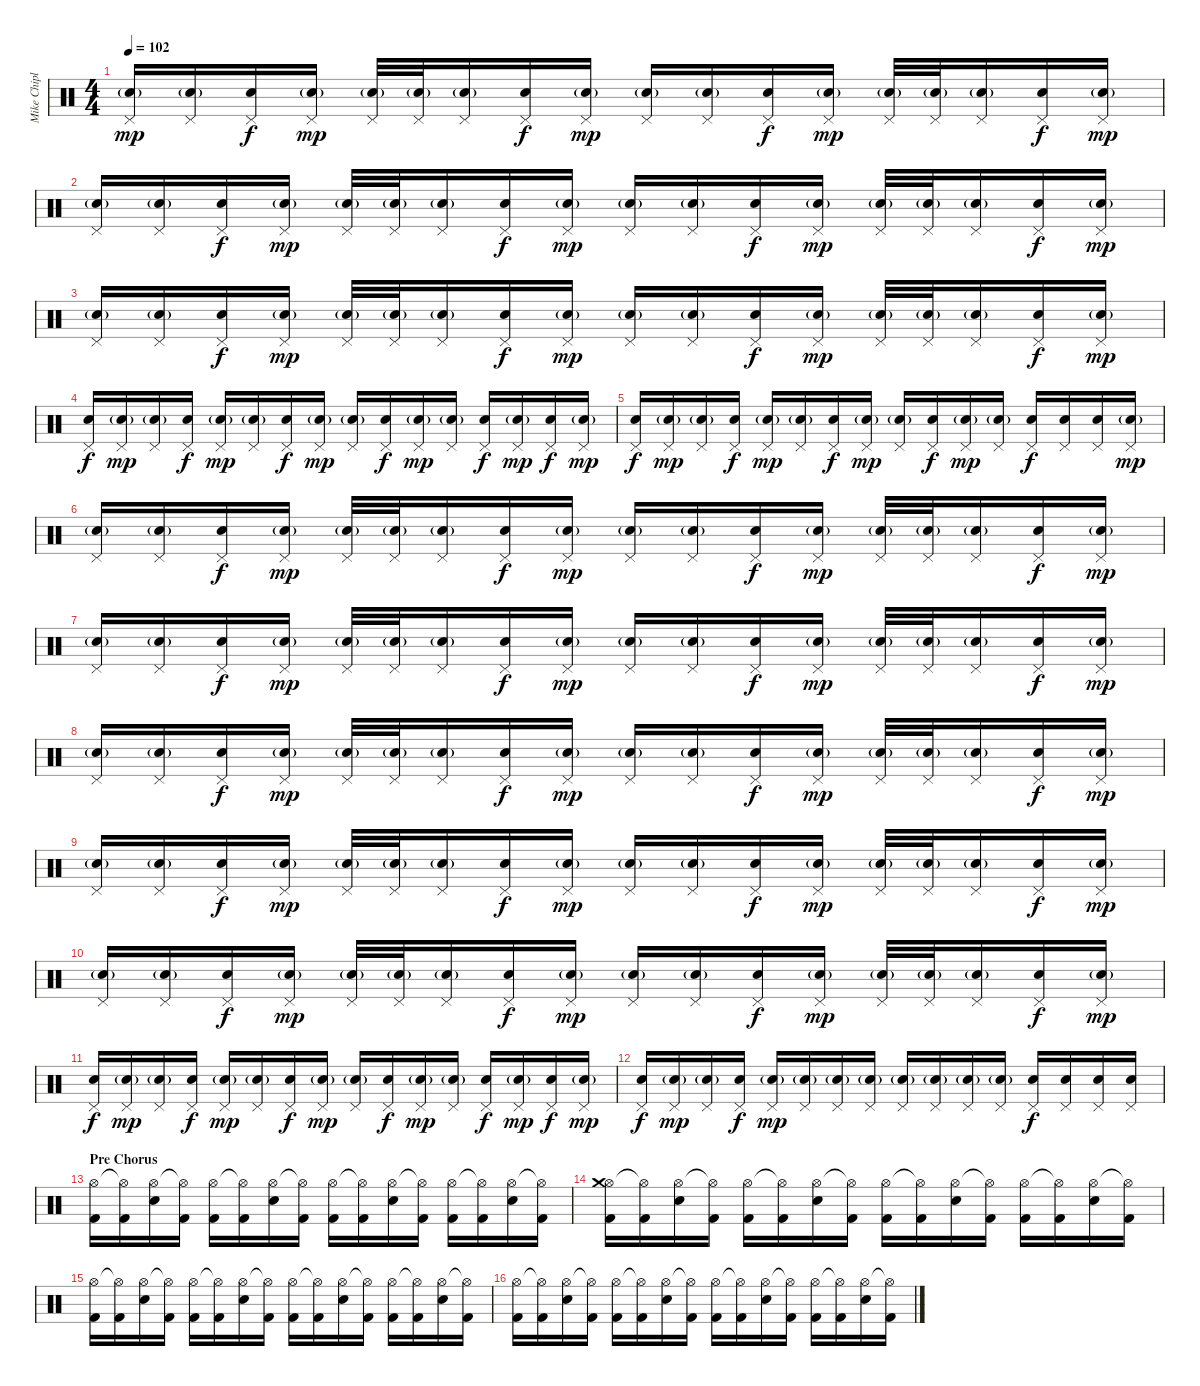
\track ("Mike Chiplin" "Mike Chipl") {instrument percussion}
\staff {score}
\articulation defaults
\ts (4 4)
\tempo 102
\clef neutral
\ks c
("Pedal Hi-Hat (hit)" "Electric Snare (hit)"{g}).16{dy mp} ("Pedal Hi-Hat (hit)" "Electric Snare (hit)"{g}).16 ("Pedal Hi-Hat (hit)" "Electric Snare (hit)").16{dy f} ("Pedal Hi-Hat (hit)" "Electric Snare (hit)"{g}).16{dy mp} ("Pedal Hi-Hat (hit)" "Electric Snare (hit)"{g}).32 ("Pedal Hi-Hat (hit)" "Electric Snare (hit)"{g}).32 ("Pedal Hi-Hat (hit)" "Electric Snare (hit)"{g}).16 ("Pedal Hi-Hat (hit)" "Electric Snare (hit)").16{dy f} ("Pedal Hi-Hat (hit)" "Electric Snare (hit)"{g}).16{dy mp} ("Pedal Hi-Hat (hit)" "Electric Snare (hit)"{g}).16 ("Pedal Hi-Hat (hit)" "Electric Snare (hit)"{g}).16 ("Pedal Hi-Hat (hit)" "Electric Snare (hit)").16{dy f} ("Pedal Hi-Hat (hit)" "Electric Snare (hit)"{g}).16{dy mp} ("Pedal Hi-Hat (hit)" "Electric Snare (hit)"{g}).32 ("Pedal Hi-Hat (hit)" "Electric Snare (hit)"{g}).32 ("Pedal Hi-Hat (hit)" "Electric Snare (hit)"{g}).16 ("Pedal Hi-Hat (hit)" "Electric Snare (hit)").16{dy f} ("Pedal Hi-Hat (hit)" "Electric Snare (hit)"{g}).16{dy mp} |
("Pedal Hi-Hat (hit)" "Electric Snare (hit)"{g}).16 ("Pedal Hi-Hat (hit)" "Electric Snare (hit)"{g}).16 ("Pedal Hi-Hat (hit)" "Electric Snare (hit)").16{dy f} ("Pedal Hi-Hat (hit)" "Electric Snare (hit)"{g}).16{dy mp} ("Pedal Hi-Hat (hit)" "Electric Snare (hit)"{g}).32 ("Pedal Hi-Hat (hit)" "Electric Snare (hit)"{g}).32 ("Pedal Hi-Hat (hit)" "Electric Snare (hit)"{g}).16 ("Pedal Hi-Hat (hit)" "Electric Snare (hit)").16{dy f} ("Pedal Hi-Hat (hit)" "Electric Snare (hit)"{g}).16{dy mp} ("Pedal Hi-Hat (hit)" "Electric Snare (hit)"{g}).16 ("Pedal Hi-Hat (hit)" "Electric Snare (hit)"{g}).16 ("Pedal Hi-Hat (hit)" "Electric Snare (hit)").16{dy f} ("Pedal Hi-Hat (hit)" "Electric Snare (hit)"{g}).16{dy mp} ("Pedal Hi-Hat (hit)" "Electric Snare (hit)"{g}).32 ("Pedal Hi-Hat (hit)" "Electric Snare (hit)"{g}).32 ("Pedal Hi-Hat (hit)" "Electric Snare (hit)"{g}).16 ("Pedal Hi-Hat (hit)" "Electric Snare (hit)").16{dy f} ("Pedal Hi-Hat (hit)" "Electric Snare (hit)"{g}).16{dy mp} |
("Pedal Hi-Hat (hit)" "Electric Snare (hit)"{g}).16 ("Pedal Hi-Hat (hit)" "Electric Snare (hit)"{g}).16 ("Pedal Hi-Hat (hit)" "Electric Snare (hit)").16{dy f} ("Pedal Hi-Hat (hit)" "Electric Snare (hit)"{g}).16{dy mp} ("Pedal Hi-Hat (hit)" "Electric Snare (hit)"{g}).32 ("Pedal Hi-Hat (hit)" "Electric Snare (hit)"{g}).32 ("Pedal Hi-Hat (hit)" "Electric Snare (hit)"{g}).16 ("Pedal Hi-Hat (hit)" "Electric Snare (hit)").16{dy f} ("Pedal Hi-Hat (hit)" "Electric Snare (hit)"{g}).16{dy mp} ("Pedal Hi-Hat (hit)" "Electric Snare (hit)"{g}).16 ("Pedal Hi-Hat (hit)" "Electric Snare (hit)"{g}).16 ("Pedal Hi-Hat (hit)" "Electric Snare (hit)").16{dy f} ("Pedal Hi-Hat (hit)" "Electric Snare (hit)"{g}).16{dy mp} ("Pedal Hi-Hat (hit)" "Electric Snare (hit)"{g}).32 ("Pedal Hi-Hat (hit)" "Electric Snare (hit)"{g}).32 ("Pedal Hi-Hat (hit)" "Electric Snare (hit)"{g}).16 ("Pedal Hi-Hat (hit)" "Electric Snare (hit)").16{dy f} ("Pedal Hi-Hat (hit)" "Electric Snare (hit)"{g}).16{dy mp} |
("Pedal Hi-Hat (hit)" "Electric Snare (hit)").16{dy f} ("Pedal Hi-Hat (hit)" "Electric Snare (hit)"{g}).16{dy mp} ("Pedal Hi-Hat (hit)" "Electric Snare (hit)"{g}).16 ("Pedal Hi-Hat (hit)" "Electric Snare (hit)").16{dy f} ("Pedal Hi-Hat (hit)" "Electric Snare (hit)"{g}).16{dy mp} ("Pedal Hi-Hat (hit)" "Electric Snare (hit)"{g}).16 ("Pedal Hi-Hat (hit)" "Electric Snare (hit)").16{dy f} ("Pedal Hi-Hat (hit)" "Electric Snare (hit)"{g}).16{dy mp} ("Pedal Hi-Hat (hit)" "Electric Snare (hit)"{g}).16 ("Pedal Hi-Hat (hit)" "Electric Snare (hit)").16{dy f} ("Pedal Hi-Hat (hit)" "Electric Snare (hit)"{g}).16{dy mp} ("Pedal Hi-Hat (hit)" "Electric Snare (hit)"{g}).16 ("Pedal Hi-Hat (hit)" "Electric Snare (hit)").16{dy f} ("Pedal Hi-Hat (hit)" "Electric Snare (hit)"{g}).16{dy mp} ("Pedal Hi-Hat (hit)" "Electric Snare (hit)").16{dy f} ("Pedal Hi-Hat (hit)" "Electric Snare (hit)"{g}).16{dy mp} |
("Pedal Hi-Hat (hit)" "Electric Snare (hit)").16{dy f} ("Pedal Hi-Hat (hit)" "Electric Snare (hit)"{g}).16{dy mp} ("Pedal Hi-Hat (hit)" "Electric Snare (hit)"{g}).16 ("Pedal Hi-Hat (hit)" "Electric Snare (hit)").16{dy f} ("Pedal Hi-Hat (hit)" "Electric Snare (hit)"{g}).16{dy mp} ("Pedal Hi-Hat (hit)" "Electric Snare (hit)"{g}).16 ("Pedal Hi-Hat (hit)" "Electric Snare (hit)").16{dy f} ("Pedal Hi-Hat (hit)" "Electric Snare (hit)"{g}).16{dy mp} ("Pedal Hi-Hat (hit)" "Electric Snare (hit)"{g}).16 ("Pedal Hi-Hat (hit)" "Electric Snare (hit)").16{dy f} ("Pedal Hi-Hat (hit)" "Electric Snare (hit)"{g}).16{dy mp} ("Pedal Hi-Hat (hit)" "Electric Snare (hit)"{g}).16 ("Pedal Hi-Hat (hit)" "Electric Snare (hit)").16{dy f} ("Pedal Hi-Hat (hit)" "Electric Snare (hit)").16 ("Pedal Hi-Hat (hit)" "Electric Snare (hit)").16 ("Pedal Hi-Hat (hit)" "Electric Snare (hit)"{g}).16{dy mp} |
("Pedal Hi-Hat (hit)" "Electric Snare (hit)"{g}).16 ("Pedal Hi-Hat (hit)" "Electric Snare (hit)"{g}).16 ("Pedal Hi-Hat (hit)" "Electric Snare (hit)").16{dy f} ("Pedal Hi-Hat (hit)" "Electric Snare (hit)"{g}).16{dy mp} ("Pedal Hi-Hat (hit)" "Electric Snare (hit)"{g}).32 ("Pedal Hi-Hat (hit)" "Electric Snare (hit)"{g}).32 ("Pedal Hi-Hat (hit)" "Electric Snare (hit)"{g}).16 ("Pedal Hi-Hat (hit)" "Electric Snare (hit)").16{dy f} ("Pedal Hi-Hat (hit)" "Electric Snare (hit)"{g}).16{dy mp} ("Pedal Hi-Hat (hit)" "Electric Snare (hit)"{g}).16 ("Pedal Hi-Hat (hit)" "Electric Snare (hit)"{g}).16 ("Pedal Hi-Hat (hit)" "Electric Snare (hit)").16{dy f} ("Pedal Hi-Hat (hit)" "Electric Snare (hit)"{g}).16{dy mp} ("Pedal Hi-Hat (hit)" "Electric Snare (hit)"{g}).32 ("Pedal Hi-Hat (hit)" "Electric Snare (hit)"{g}).32 ("Pedal Hi-Hat (hit)" "Electric Snare (hit)"{g}).16 ("Pedal Hi-Hat (hit)" "Electric Snare (hit)").16{dy f} ("Pedal Hi-Hat (hit)" "Electric Snare (hit)"{g}).16{dy mp} |
("Pedal Hi-Hat (hit)" "Electric Snare (hit)"{g}).16 ("Pedal Hi-Hat (hit)" "Electric Snare (hit)"{g}).16 ("Pedal Hi-Hat (hit)" "Electric Snare (hit)").16{dy f} ("Pedal Hi-Hat (hit)" "Electric Snare (hit)"{g}).16{dy mp} ("Pedal Hi-Hat (hit)" "Electric Snare (hit)"{g}).32 ("Pedal Hi-Hat (hit)" "Electric Snare (hit)"{g}).32 ("Pedal Hi-Hat (hit)" "Electric Snare (hit)"{g}).16 ("Pedal Hi-Hat (hit)" "Electric Snare (hit)").16{dy f} ("Pedal Hi-Hat (hit)" "Electric Snare (hit)"{g}).16{dy mp} ("Pedal Hi-Hat (hit)" "Electric Snare (hit)"{g}).16 ("Pedal Hi-Hat (hit)" "Electric Snare (hit)"{g}).16 ("Pedal Hi-Hat (hit)" "Electric Snare (hit)").16{dy f} ("Pedal Hi-Hat (hit)" "Electric Snare (hit)"{g}).16{dy mp} ("Pedal Hi-Hat (hit)" "Electric Snare (hit)"{g}).32 ("Pedal Hi-Hat (hit)" "Electric Snare (hit)"{g}).32 ("Pedal Hi-Hat (hit)" "Electric Snare (hit)"{g}).16 ("Pedal Hi-Hat (hit)" "Electric Snare (hit)").16{dy f} ("Pedal Hi-Hat (hit)" "Electric Snare (hit)"{g}).16{dy mp} |
("Pedal Hi-Hat (hit)" "Electric Snare (hit)"{g}).16 ("Pedal Hi-Hat (hit)" "Electric Snare (hit)"{g}).16 ("Pedal Hi-Hat (hit)" "Electric Snare (hit)").16{dy f} ("Pedal Hi-Hat (hit)" "Electric Snare (hit)"{g}).16{dy mp} ("Pedal Hi-Hat (hit)" "Electric Snare (hit)"{g}).32 ("Pedal Hi-Hat (hit)" "Electric Snare (hit)"{g}).32 ("Pedal Hi-Hat (hit)" "Electric Snare (hit)"{g}).16 ("Pedal Hi-Hat (hit)" "Electric Snare (hit)").16{dy f} ("Pedal Hi-Hat (hit)" "Electric Snare (hit)"{g}).16{dy mp} ("Pedal Hi-Hat (hit)" "Electric Snare (hit)"{g}).16 ("Pedal Hi-Hat (hit)" "Electric Snare (hit)"{g}).16 ("Pedal Hi-Hat (hit)" "Electric Snare (hit)").16{dy f} ("Pedal Hi-Hat (hit)" "Electric Snare (hit)"{g}).16{dy mp} ("Pedal Hi-Hat (hit)" "Electric Snare (hit)"{g}).32 ("Pedal Hi-Hat (hit)" "Electric Snare (hit)"{g}).32 ("Pedal Hi-Hat (hit)" "Electric Snare (hit)"{g}).16 ("Pedal Hi-Hat (hit)" "Electric Snare (hit)").16{dy f} ("Pedal Hi-Hat (hit)" "Electric Snare (hit)"{g}).16{dy mp} |
("Pedal Hi-Hat (hit)" "Electric Snare (hit)"{g}).16 ("Pedal Hi-Hat (hit)" "Electric Snare (hit)"{g}).16 ("Pedal Hi-Hat (hit)" "Electric Snare (hit)").16{dy f} ("Pedal Hi-Hat (hit)" "Electric Snare (hit)"{g}).16{dy mp} ("Pedal Hi-Hat (hit)" "Electric Snare (hit)"{g}).32 ("Pedal Hi-Hat (hit)" "Electric Snare (hit)"{g}).32 ("Pedal Hi-Hat (hit)" "Electric Snare (hit)"{g}).16 ("Pedal Hi-Hat (hit)" "Electric Snare (hit)").16{dy f} ("Pedal Hi-Hat (hit)" "Electric Snare (hit)"{g}).16{dy mp} ("Pedal Hi-Hat (hit)" "Electric Snare (hit)"{g}).16 ("Pedal Hi-Hat (hit)" "Electric Snare (hit)"{g}).16 ("Pedal Hi-Hat (hit)" "Electric Snare (hit)").16{dy f} ("Pedal Hi-Hat (hit)" "Electric Snare (hit)"{g}).16{dy mp} ("Pedal Hi-Hat (hit)" "Electric Snare (hit)"{g}).32 ("Pedal Hi-Hat (hit)" "Electric Snare (hit)"{g}).32 ("Pedal Hi-Hat (hit)" "Electric Snare (hit)"{g}).16 ("Pedal Hi-Hat (hit)" "Electric Snare (hit)").16{dy f} ("Pedal Hi-Hat (hit)" "Electric Snare (hit)"{g}).16{dy mp} |
("Pedal Hi-Hat (hit)" "Electric Snare (hit)"{g}).16 ("Pedal Hi-Hat (hit)" "Electric Snare (hit)"{g}).16 ("Pedal Hi-Hat (hit)" "Electric Snare (hit)").16{dy f} ("Pedal Hi-Hat (hit)" "Electric Snare (hit)"{g}).16{dy mp} ("Pedal Hi-Hat (hit)" "Electric Snare (hit)"{g}).32 ("Pedal Hi-Hat (hit)" "Electric Snare (hit)"{g}).32 ("Pedal Hi-Hat (hit)" "Electric Snare (hit)"{g}).16 ("Pedal Hi-Hat (hit)" "Electric Snare (hit)").16{dy f} ("Pedal Hi-Hat (hit)" "Electric Snare (hit)"{g}).16{dy mp} ("Pedal Hi-Hat (hit)" "Electric Snare (hit)"{g}).16 ("Pedal Hi-Hat (hit)" "Electric Snare (hit)"{g}).16 ("Pedal Hi-Hat (hit)" "Electric Snare (hit)").16{dy f} ("Pedal Hi-Hat (hit)" "Electric Snare (hit)"{g}).16{dy mp} ("Pedal Hi-Hat (hit)" "Electric Snare (hit)"{g}).32 ("Pedal Hi-Hat (hit)" "Electric Snare (hit)"{g}).32 ("Pedal Hi-Hat (hit)" "Electric Snare (hit)"{g}).16 ("Pedal Hi-Hat (hit)" "Electric Snare (hit)").16{dy f} ("Pedal Hi-Hat (hit)" "Electric Snare (hit)"{g}).16{dy mp} |
("Pedal Hi-Hat (hit)" "Electric Snare (hit)").16{dy f} ("Pedal Hi-Hat (hit)" "Electric Snare (hit)"{g}).16{dy mp} ("Pedal Hi-Hat (hit)" "Electric Snare (hit)"{g}).16 ("Pedal Hi-Hat (hit)" "Electric Snare (hit)").16{dy f} ("Pedal Hi-Hat (hit)" "Electric Snare (hit)"{g}).16{dy mp} ("Pedal Hi-Hat (hit)" "Electric Snare (hit)"{g}).16 ("Pedal Hi-Hat (hit)" "Electric Snare (hit)").16{dy f} ("Pedal Hi-Hat (hit)" "Electric Snare (hit)"{g}).16{dy mp} ("Pedal Hi-Hat (hit)" "Electric Snare (hit)"{g}).16 ("Pedal Hi-Hat (hit)" "Electric Snare (hit)").16{dy f} ("Pedal Hi-Hat (hit)" "Electric Snare (hit)"{g}).16{dy mp} ("Pedal Hi-Hat (hit)" "Electric Snare (hit)"{g}).16 ("Pedal Hi-Hat (hit)" "Electric Snare (hit)").16{dy f} ("Pedal Hi-Hat (hit)" "Electric Snare (hit)"{g}).16{dy mp} ("Pedal Hi-Hat (hit)" "Electric Snare (hit)").16{dy f} ("Pedal Hi-Hat (hit)" "Electric Snare (hit)"{g}).16{dy mp} |
("Pedal Hi-Hat (hit)" "Electric Snare (hit)").16{dy f} ("Pedal Hi-Hat (hit)" "Electric Snare (hit)"{g}).16{dy mp} ("Pedal Hi-Hat (hit)" "Electric Snare (hit)"{g}).16 ("Pedal Hi-Hat (hit)" "Electric Snare (hit)").16{dy f} ("Pedal Hi-Hat (hit)" "Electric Snare (hit)"{g}).16{dy mp} ("Pedal Hi-Hat (hit)" "Electric Snare (hit)"{g}).16 ("Pedal Hi-Hat (hit)" "Electric Snare (hit)"{g}).16 ("Pedal Hi-Hat (hit)" "Electric Snare (hit)"{g}).16 ("Pedal Hi-Hat (hit)" "Electric Snare (hit)"{g}).16 ("Pedal Hi-Hat (hit)" "Electric Snare (hit)"{g}).16 ("Pedal Hi-Hat (hit)" "Electric Snare (hit)"{g}).16 ("Pedal Hi-Hat (hit)" "Electric Snare (hit)"{g}).16 ("Pedal Hi-Hat (hit)" "Electric Snare (hit)").16{dy f} ("Pedal Hi-Hat (hit)" "Electric Snare (hit)").16 ("Pedal Hi-Hat (hit)" "Electric Snare (hit)").16 ("Pedal Hi-Hat (hit)" "Electric Snare (hit)").16 |
\section ("" "Pre Chorus")
("Hi-Hat (open)" "Kick (hit) 2").16 ("Hi-Hat (open)"{t} "Kick (hit) 2").16 ("Hi-Hat (open)" "Electric Snare (hit)").16 ("Hi-Hat (open)"{t} "Kick (hit) 2").16 ("Hi-Hat (open)" "Kick (hit) 2").16 ("Hi-Hat (open)"{t} "Kick (hit) 2").16 ("Hi-Hat (open)" "Electric Snare (hit)").16 ("Hi-Hat (open)"{t} "Kick (hit) 2").16 ("Hi-Hat (open)" "Kick (hit) 2").16 ("Hi-Hat (open)"{t} "Kick (hit) 2").16 ("Hi-Hat (open)" "Electric Snare (hit)").16 ("Hi-Hat (open)"{t} "Kick (hit) 2").16 ("Hi-Hat (open)" "Kick (hit) 2").16 ("Hi-Hat (open)"{t} "Kick (hit) 2").16 ("Hi-Hat (open)" "Electric Snare (hit)").16 ("Hi-Hat (open)"{t} "Kick (hit) 2").16 |
("Hi-Hat (open)" "Crash medium (hit)" "Kick (hit) 2").16 ("Hi-Hat (open)"{t} "Kick (hit) 2").16 ("Hi-Hat (open)" "Electric Snare (hit)").16 ("Hi-Hat (open)"{t} "Kick (hit) 2").16 ("Hi-Hat (open)" "Kick (hit) 2").16 ("Hi-Hat (open)"{t} "Kick (hit) 2").16 ("Hi-Hat (open)" "Electric Snare (hit)").16 ("Hi-Hat (open)"{t} "Kick (hit) 2").16 ("Hi-Hat (open)" "Kick (hit) 2").16 ("Hi-Hat (open)"{t} "Kick (hit) 2").16 ("Hi-Hat (open)" "Electric Snare (hit)").16 ("Hi-Hat (open)"{t} "Kick (hit) 2").16 ("Hi-Hat (open)" "Kick (hit) 2").16 ("Hi-Hat (open)"{t} "Kick (hit) 2").16 ("Hi-Hat (open)" "Electric Snare (hit)").16 ("Hi-Hat (open)"{t} "Kick (hit) 2").16 |
("Hi-Hat (open)" "Kick (hit) 2").16 ("Hi-Hat (open)"{t} "Kick (hit) 2").16 ("Hi-Hat (open)" "Electric Snare (hit)").16 ("Hi-Hat (open)"{t} "Kick (hit) 2").16 ("Hi-Hat (open)" "Kick (hit) 2").16 ("Hi-Hat (open)"{t} "Kick (hit) 2").16 ("Hi-Hat (open)" "Electric Snare (hit)").16 ("Hi-Hat (open)"{t} "Kick (hit) 2").16 ("Hi-Hat (open)" "Kick (hit) 2").16 ("Hi-Hat (open)"{t} "Kick (hit) 2").16 ("Hi-Hat (open)" "Electric Snare (hit)").16 ("Hi-Hat (open)"{t} "Kick (hit) 2").16 ("Hi-Hat (open)" "Kick (hit) 2").16 ("Hi-Hat (open)"{t} "Kick (hit) 2").16 ("Hi-Hat (open)" "Electric Snare (hit)").16 ("Hi-Hat (open)"{t} "Kick (hit) 2").16 |
("Hi-Hat (open)" "Kick (hit) 2").16 ("Hi-Hat (open)"{t} "Kick (hit) 2").16 ("Hi-Hat (open)" "Electric Snare (hit)").16 ("Hi-Hat (open)"{t} "Kick (hit) 2").16 ("Hi-Hat (open)" "Kick (hit) 2").16 ("Hi-Hat (open)"{t} "Kick (hit) 2").16 ("Hi-Hat (open)" "Electric Snare (hit)").16 ("Hi-Hat (open)"{t} "Kick (hit) 2").16 ("Hi-Hat (open)" "Kick (hit) 2").16 ("Hi-Hat (open)"{t} "Kick (hit) 2").16 ("Hi-Hat (open)" "Electric Snare (hit)").16 ("Hi-Hat (open)"{t} "Kick (hit) 2").16 ("Hi-Hat (open)" "Kick (hit) 2").16 ("Hi-Hat (open)"{t} "Kick (hit) 2").16 ("Hi-Hat (open)" "Electric Snare (hit)").16 ("Hi-Hat (open)"{t} "Kick (hit) 2").16
